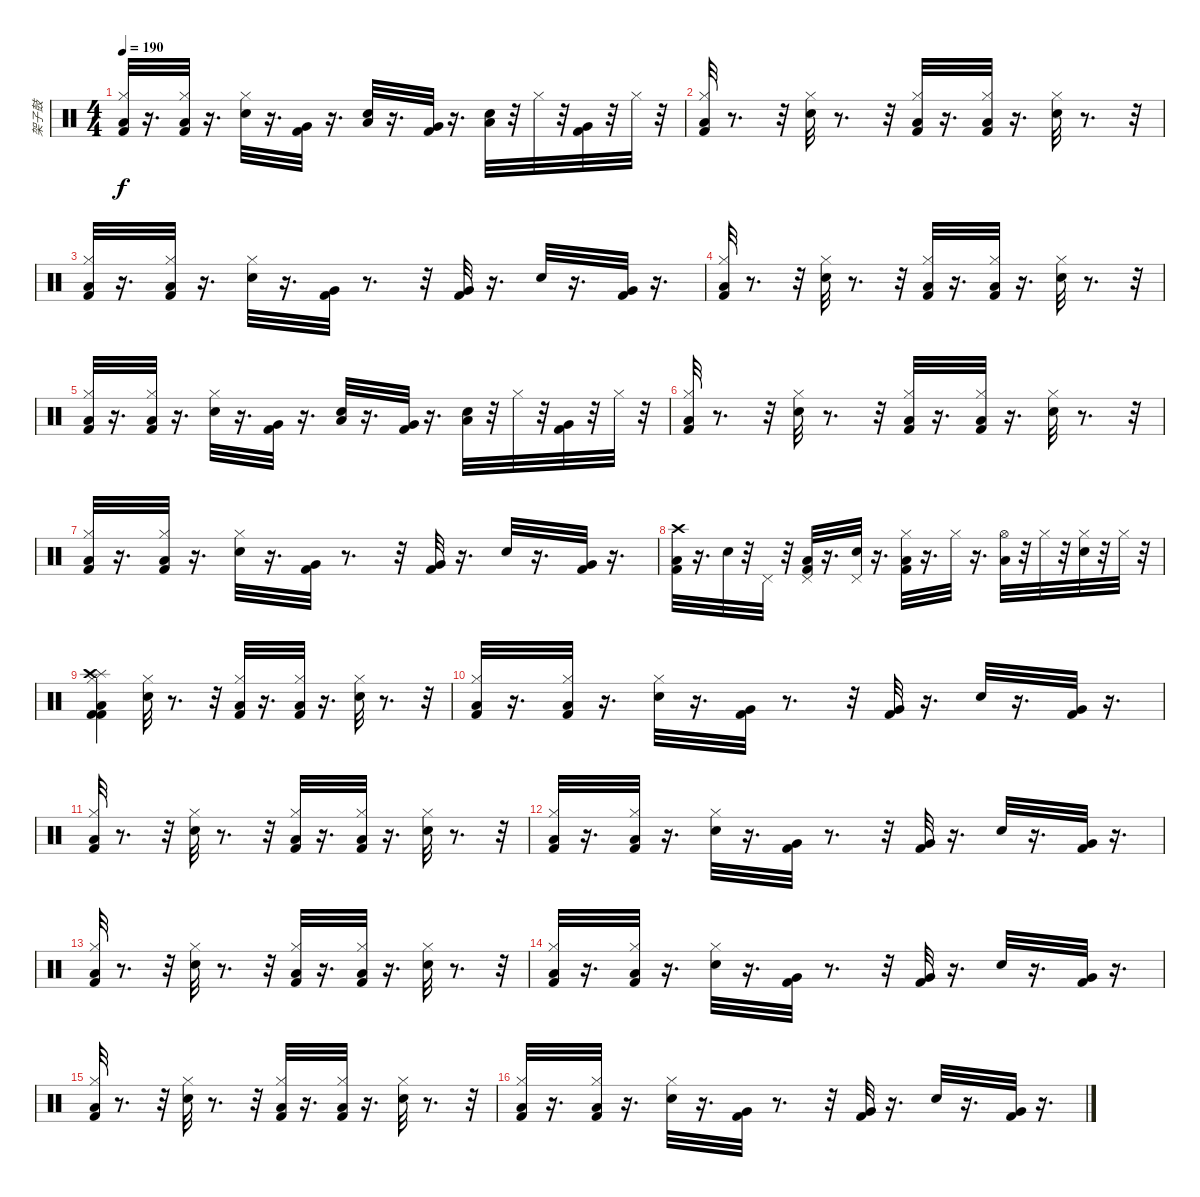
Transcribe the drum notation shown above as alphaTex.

\track ("架子鼓" "架子鼓") {instrument percussion}
\staff {score}
\articulation defaults
\ts (4 4)
\tempo 190
\clef neutral
\ks c
("Kick (hit) 2" "Hi-Hat (closed)" "Low Floor Tom (hit)").32{dy f} r.16{d} ("Kick (hit) 2" "Hi-Hat (closed)" "Low Floor Tom (hit)").32 r.16{d} ("Hi-Hat (closed)" "Electric Snare (hit)").32 r.16{d} ("Kick (hit) 2" "Very Low Tom (hit)").32 r.16{d} ("Snare (hit) 2" "Low Floor Tom (hit)").32 r.16{d} ("Kick (hit) 2" "Very Low Tom (hit)").32 r.16{d} ("Low Floor Tom (hit)" "Snare (hit) 2").32 r.32 "Hi-Hat (closed)".32 r.32 ("Kick (hit) 2" "Very Low Tom (hit)").32 r.32 "Hi-Hat (closed)".32 r.32 |
("Kick (hit) 2" "Hi-Hat (closed)" "Low Floor Tom (hit)").32 r.8{d} r.32 ("Hi-Hat (closed)" "Electric Snare (hit)").32 r.8{d} r.32 ("Kick (hit) 2" "Hi-Hat (closed)" "Low Floor Tom (hit)").32 r.16{d} ("Kick (hit) 2" "Hi-Hat (closed)" "Low Floor Tom (hit)").32 r.16{d} ("Hi-Hat (closed)" "Electric Snare (hit)").32 r.8{d} r.32 |
("Kick (hit) 2" "Hi-Hat (closed)" "Low Floor Tom (hit)").32 r.16{d} ("Kick (hit) 2" "Hi-Hat (closed)" "Low Floor Tom (hit)").32 r.16{d} ("Hi-Hat (closed)" "Electric Snare (hit)").32 r.16{d} ("Kick (hit) 2" "Very Low Tom (hit)").32 r.8{d} r.32 ("Kick (hit) 2" "Very Low Tom (hit)").32 r.16{d} "Snare (hit) 2".32 r.16{d} ("Kick (hit) 2" "Very Low Tom (hit)").32 r.16{d} |
("Kick (hit) 2" "Hi-Hat (closed)" "Low Floor Tom (hit)").32 r.8{d} r.32 ("Hi-Hat (closed)" "Electric Snare (hit)").32 r.8{d} r.32 ("Kick (hit) 2" "Hi-Hat (closed)" "Low Floor Tom (hit)").32 r.16{d} ("Kick (hit) 2" "Hi-Hat (closed)" "Low Floor Tom (hit)").32 r.16{d} ("Hi-Hat (closed)" "Electric Snare (hit)").32 r.8{d} r.32 |
("Kick (hit) 2" "Hi-Hat (closed)" "Low Floor Tom (hit)").32 r.16{d} ("Kick (hit) 2" "Hi-Hat (closed)" "Low Floor Tom (hit)").32 r.16{d} ("Hi-Hat (closed)" "Electric Snare (hit)").32 r.16{d} ("Kick (hit) 2" "Very Low Tom (hit)").32 r.16{d} ("Snare (hit) 2" "Low Floor Tom (hit)").32 r.16{d} ("Kick (hit) 2" "Very Low Tom (hit)").32 r.16{d} ("Low Floor Tom (hit)" "Snare (hit) 2").32 r.32 "Hi-Hat (closed)".32 r.32 ("Kick (hit) 2" "Very Low Tom (hit)").32 r.32 "Hi-Hat (closed)".32 r.32 |
("Kick (hit) 2" "Hi-Hat (closed)" "Low Floor Tom (hit)").32 r.8{d} r.32 ("Hi-Hat (closed)" "Electric Snare (hit)").32 r.8{d} r.32 ("Kick (hit) 2" "Hi-Hat (closed)" "Low Floor Tom (hit)").32 r.16{d} ("Kick (hit) 2" "Hi-Hat (closed)" "Low Floor Tom (hit)").32 r.16{d} ("Hi-Hat (closed)" "Electric Snare (hit)").32 r.8{d} r.32 |
("Kick (hit) 2" "Hi-Hat (closed)" "Low Floor Tom (hit)").32 r.16{d} ("Kick (hit) 2" "Hi-Hat (closed)" "Low Floor Tom (hit)").32 r.16{d} ("Hi-Hat (closed)" "Electric Snare (hit)").32 r.16{d} ("Kick (hit) 2" "Very Low Tom (hit)").32 r.8{d} r.32 ("Kick (hit) 2" "Very Low Tom (hit)").32 r.16{d} "Snare (hit) 2".32 r.16{d} ("Kick (hit) 2" "Very Low Tom (hit)").32 r.16{d} |
("Crash high (hit)" "Kick (hit) 2" "Low Floor Tom (hit)").32 r.16{d} "Electric Snare (hit)".32 r.32 "Pedal Hi-Hat (hit)".32 r.32 ("Pedal Hi-Hat (hit)" "Kick (hit) 2" "Low Floor Tom (hit)").32 r.16{d} ("Snare (hit) 2" "Pedal Hi-Hat (hit)").32 r.16{d} ("Kick (hit) 2" "Hi-Hat (closed)" "Low Tom (hit)").32 r.16{d} "Hi-Hat (closed)".32 r.16{d} ("Low Floor Tom (hit)" "Hi-Hat (open)").32 r.32 "Hi-Hat (closed)".32 r.32 ("Snare (hit) 2" "Hi-Hat (closed)").32 r.32 "Hi-Hat (closed)".32 r.32 |
("Kick (hit) 2" "Splash (hit)" "Hi-Hat (closed)" "Kick (hit) 2" "Low Floor Tom (hit)" "Crash high (hit)").4 ("Hi-Hat (closed)" "Electric Snare (hit)").32 r.8{d} r.32 ("Kick (hit) 2" "Hi-Hat (closed)" "Low Floor Tom (hit)").32 r.16{d} ("Kick (hit) 2" "Hi-Hat (closed)" "Low Floor Tom (hit)").32 r.16{d} ("Hi-Hat (closed)" "Electric Snare (hit)").32 r.8{d} r.32 |
("Low Floor Tom (hit)" "Kick (hit) 2" "Hi-Hat (closed)").32 r.16{d} ("Low Floor Tom (hit)" "Kick (hit) 2" "Hi-Hat (closed)").32 r.16{d} ("Hi-Hat (closed)" "Electric Snare (hit)").32 r.16{d} ("Kick (hit) 2" "Very Low Tom (hit)").32 r.8{d} r.32 ("Very Low Tom (hit)" "Kick (hit) 2").32 r.16{d} "Snare (hit) 2".32 r.16{d} ("Very Low Tom (hit)" "Kick (hit) 2").32 r.16{d} |
("Low Floor Tom (hit)" "Kick (hit) 2" "Hi-Hat (closed)").32 r.8{d} r.32 ("Hi-Hat (closed)" "Electric Snare (hit)").32 r.8{d} r.32 ("Kick (hit) 2" "Hi-Hat (closed)" "Low Floor Tom (hit)").32 r.16{d} ("Kick (hit) 2" "Hi-Hat (closed)" "Low Floor Tom (hit)").32 r.16{d} ("Hi-Hat (closed)" "Electric Snare (hit)").32 r.8{d} r.32 |
("Hi-Hat (closed)" "Kick (hit) 2" "Low Floor Tom (hit)").32 r.16{d} ("Hi-Hat (closed)" "Kick (hit) 2" "Low Floor Tom (hit)").32 r.16{d} ("Electric Snare (hit)" "Hi-Hat (closed)").32 r.16{d} ("Kick (hit) 2" "Very Low Tom (hit)").32 r.8{d} r.32 ("Kick (hit) 2" "Very Low Tom (hit)").32 r.16{d} "Snare (hit) 2".32 r.16{d} ("Very Low Tom (hit)" "Kick (hit) 2").32 r.16{d} |
("Hi-Hat (closed)" "Low Floor Tom (hit)" "Kick (hit) 2").32 r.8{d} r.32 ("Hi-Hat (closed)" "Electric Snare (hit)").32 r.8{d} r.32 ("Kick (hit) 2" "Hi-Hat (closed)" "Low Floor Tom (hit)").32 r.16{d} ("Kick (hit) 2" "Hi-Hat (closed)" "Low Floor Tom (hit)").32 r.16{d} ("Hi-Hat (closed)" "Electric Snare (hit)").32 r.8{d} r.32 |
("Kick (hit) 2" "Hi-Hat (closed)" "Low Floor Tom (hit)").32 r.16{d} ("Kick (hit) 2" "Hi-Hat (closed)" "Low Floor Tom (hit)").32 r.16{d} ("Hi-Hat (closed)" "Electric Snare (hit)").32 r.16{d} ("Kick (hit) 2" "Very Low Tom (hit)").32 r.8{d} r.32 ("Kick (hit) 2" "Very Low Tom (hit)").32 r.16{d} "Snare (hit) 2".32 r.16{d} ("Kick (hit) 2" "Very Low Tom (hit)").32 r.16{d} |
("Kick (hit) 2" "Hi-Hat (closed)" "Low Floor Tom (hit)").32 r.8{d} r.32 ("Hi-Hat (closed)" "Electric Snare (hit)").32 r.8{d} r.32 ("Kick (hit) 2" "Hi-Hat (closed)" "Low Floor Tom (hit)").32 r.16{d} ("Kick (hit) 2" "Hi-Hat (closed)" "Low Floor Tom (hit)").32 r.16{d} ("Hi-Hat (closed)" "Electric Snare (hit)").32 r.8{d} r.32 |
("Kick (hit) 2" "Hi-Hat (closed)" "Low Floor Tom (hit)").32 r.16{d} ("Kick (hit) 2" "Hi-Hat (closed)" "Low Floor Tom (hit)").32 r.16{d} ("Hi-Hat (closed)" "Electric Snare (hit)").32 r.16{d} ("Very Low Tom (hit)" "Kick (hit) 2").32 r.8{d} r.32 ("Kick (hit) 2" "Very Low Tom (hit)").32 r.16{d} "Snare (hit) 2".32 r.16{d} ("Kick (hit) 2" "Very Low Tom (hit)").32 r.16{d}
